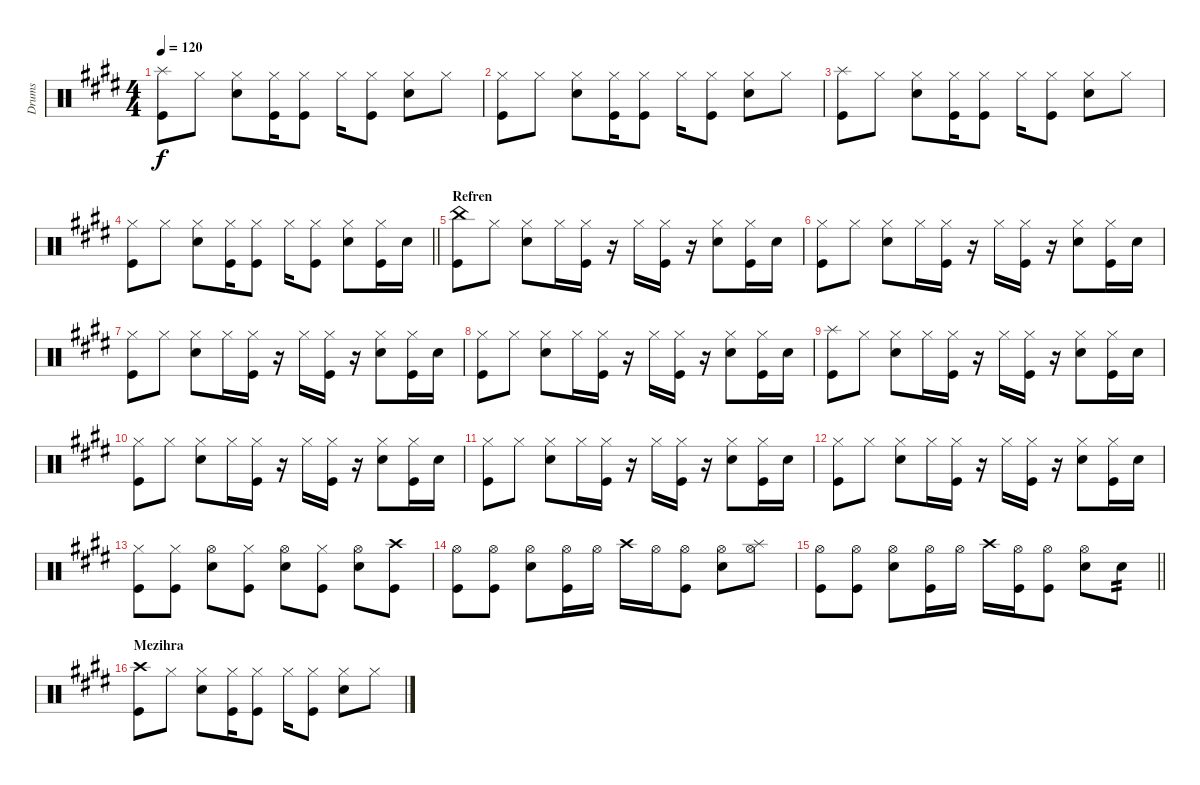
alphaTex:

\track ("Drums" "Drums") {instrument percussion}
\staff {score}
\articulation defaults
\ts (4 4)
\tempo 120
\clef neutral
\ks e
("Splash (hit)" "Kick (hit)").8{dy f} "Hi-Hat (closed)".8 ("Hi-Hat (closed)" "Snare (hit) 2").8 ("Hi-Hat (closed)" "Kick (hit)").16 ("Hi-Hat (closed)" "Kick (hit)").8 "Hi-Hat (closed)".16 ("Hi-Hat (closed)" "Kick (hit)").8 ("Hi-Hat (closed)" "Snare (hit) 2").8 "Hi-Hat (closed)".8 |
\ks c#minor
("Hi-Hat (closed)" "Kick (hit)").8 "Hi-Hat (closed)".8 ("Hi-Hat (closed)" "Snare (hit) 2").8 ("Hi-Hat (closed)" "Kick (hit)").16 ("Hi-Hat (closed)" "Kick (hit)").8 "Hi-Hat (closed)".16 ("Hi-Hat (closed)" "Kick (hit)").8 ("Hi-Hat (closed)" "Snare (hit) 2").8 "Hi-Hat (closed)".8 |
\ks e
("Splash (hit)" "Kick (hit)").8 "Hi-Hat (closed)".8 ("Hi-Hat (closed)" "Snare (hit) 2").8 ("Hi-Hat (closed)" "Kick (hit)").16 ("Hi-Hat (closed)" "Kick (hit)").8 "Hi-Hat (closed)".16 ("Hi-Hat (closed)" "Kick (hit)").8 ("Hi-Hat (closed)" "Snare (hit) 2").8 "Hi-Hat (closed)".8 |
\barLineRight lightlight
\ks c#minor
("Hi-Hat (closed)" "Kick (hit)").8 "Hi-Hat (closed)".8 ("Hi-Hat (closed)" "Snare (hit) 2").8 ("Hi-Hat (closed)" "Kick (hit)").16 ("Hi-Hat (closed)" "Kick (hit)").8 "Hi-Hat (closed)".16 ("Hi-Hat (closed)" "Kick (hit)").8 ("Hi-Hat (closed)" "Snare (hit) 2").8 ("Hi-Hat (closed)" "Kick (hit)").16 "Snare (hit) 2".16 |
\section ("" "Refren")
\ks e
("China (hit)" "Kick (hit)").8 "Hi-Hat (closed)".8 ("Hi-Hat (closed)" "Snare (hit) 2").8 "Hi-Hat (closed)".16 ("Hi-Hat (closed)" "Kick (hit)").16 r.16 "Hi-Hat (closed)".16 ("Hi-Hat (closed)" "Kick (hit)").16 r.16 ("Hi-Hat (closed)" "Snare (hit) 2").8 ("Hi-Hat (closed)" "Kick (hit)").16 "Snare (hit) 2".16 |
\ks c#minor
("Hi-Hat (closed)" "Kick (hit)").8 "Hi-Hat (closed)".8 ("Hi-Hat (closed)" "Snare (hit) 2").8 "Hi-Hat (closed)".16 ("Hi-Hat (closed)" "Kick (hit)").16 r.16 "Hi-Hat (closed)".16 ("Hi-Hat (closed)" "Kick (hit)").16 r.16 ("Hi-Hat (closed)" "Snare (hit) 2").8 ("Hi-Hat (closed)" "Kick (hit)").16 "Snare (hit) 2".16 |
\ks e
("Hi-Hat (closed)" "Kick (hit)").8 "Hi-Hat (closed)".8 ("Hi-Hat (closed)" "Snare (hit) 2").8 "Hi-Hat (closed)".16 ("Hi-Hat (closed)" "Kick (hit)").16 r.16 "Hi-Hat (closed)".16 ("Hi-Hat (closed)" "Kick (hit)").16 r.16 ("Hi-Hat (closed)" "Snare (hit) 2").8 ("Hi-Hat (closed)" "Kick (hit)").16 "Snare (hit) 2".16 |
\ks c#minor
("Hi-Hat (closed)" "Kick (hit)").8 "Hi-Hat (closed)".8 ("Hi-Hat (closed)" "Snare (hit) 2").8 "Hi-Hat (closed)".16 ("Hi-Hat (closed)" "Kick (hit)").16 r.16 "Hi-Hat (closed)".16 ("Hi-Hat (closed)" "Kick (hit)").16 r.16 ("Hi-Hat (closed)" "Snare (hit) 2").8 ("Hi-Hat (closed)" "Kick (hit)").16 "Snare (hit) 2".16 |
\ks e
("Splash (hit)" "Kick (hit)").8 "Hi-Hat (closed)".8 ("Hi-Hat (closed)" "Snare (hit) 2").8 "Hi-Hat (closed)".16 ("Hi-Hat (closed)" "Kick (hit)").16 r.16 "Hi-Hat (closed)".16 ("Hi-Hat (closed)" "Kick (hit)").16 r.16 ("Hi-Hat (closed)" "Snare (hit) 2").8 ("Hi-Hat (closed)" "Kick (hit)").16 "Snare (hit) 2".16 |
\ks c#minor
("Hi-Hat (closed)" "Kick (hit)").8 "Hi-Hat (closed)".8 ("Hi-Hat (closed)" "Snare (hit) 2").8 "Hi-Hat (closed)".16 ("Hi-Hat (closed)" "Kick (hit)").16 r.16 "Hi-Hat (closed)".16 ("Hi-Hat (closed)" "Kick (hit)").16 r.16 ("Hi-Hat (closed)" "Snare (hit) 2").8 ("Hi-Hat (closed)" "Kick (hit)").16 "Snare (hit) 2".16 |
\ks e
("Hi-Hat (closed)" "Kick (hit)").8 "Hi-Hat (closed)".8 ("Hi-Hat (closed)" "Snare (hit) 2").8 "Hi-Hat (closed)".16 ("Hi-Hat (closed)" "Kick (hit)").16 r.16 "Hi-Hat (closed)".16 ("Hi-Hat (closed)" "Kick (hit)").16 r.16 ("Hi-Hat (closed)" "Snare (hit) 2").8 ("Hi-Hat (closed)" "Kick (hit)").16 "Snare (hit) 2".16 |
\ks c#minor
("Hi-Hat (closed)" "Kick (hit)").8 "Hi-Hat (closed)".8 ("Hi-Hat (closed)" "Snare (hit) 2").8 "Hi-Hat (closed)".16 ("Hi-Hat (closed)" "Kick (hit)").16 r.16 "Hi-Hat (closed)".16 ("Hi-Hat (closed)" "Kick (hit)").16 r.16 ("Hi-Hat (closed)" "Snare (hit) 2").8 ("Hi-Hat (closed)" "Kick (hit)").16 "Snare (hit) 2".16 |
("Hi-Hat (closed)" "Kick (hit)").8 ("Hi-Hat (closed)" "Kick (hit)").8 ("Hi-Hat (open)" "Snare (hit) 2").8 ("Hi-Hat (closed)" "Kick (hit)").8 ("Hi-Hat (open)" "Snare (hit) 2").8 ("Hi-Hat (closed)" "Kick (hit)").8 ("Hi-Hat (open)" "Snare (hit) 2").8 ("Crash high (hit)" "Kick (hit)").8 |
("Hi-Hat (open)" "Kick (hit)").8 ("Hi-Hat (open)" "Kick (hit)").8 ("Hi-Hat (open)" "Snare (hit) 2").8 ("Hi-Hat (open)" "Kick (hit)").16 "Hi-Hat (open)".16 "Crash high (hit)".16 "Hi-Hat (open)".16 ("Hi-Hat (open)" "Kick (hit)").8 ("Hi-Hat (open)" "Snare (hit) 2").8 ("Hi-Hat (open)" "Splash (hit)").8 |
\barLineRight lightlight
("Hi-Hat (open)" "Kick (hit)").8 ("Hi-Hat (open)" "Kick (hit)").8 ("Hi-Hat (open)" "Snare (hit) 2").8 ("Hi-Hat (open)" "Kick (hit)").16 "Hi-Hat (open)".16 "Crash high (hit)".16 ("Hi-Hat (open)" "Kick (hit)").16 ("Hi-Hat (open)" "Kick (hit)").8 ("Hi-Hat (open)" "Snare (hit) 2").8 "Snare (hit) 2".8{tp 2} |
\section ("" "Mezihra")
\ks e
("Crash high (hit)" "Kick (hit)").8 "Hi-Hat (closed)".8 ("Hi-Hat (closed)" "Snare (hit) 2").8 ("Hi-Hat (closed)" "Kick (hit)").16 ("Hi-Hat (closed)" "Kick (hit)").8 "Hi-Hat (closed)".16 ("Hi-Hat (closed)" "Kick (hit)").8 ("Hi-Hat (closed)" "Snare (hit) 2").8 "Hi-Hat (closed)".8
